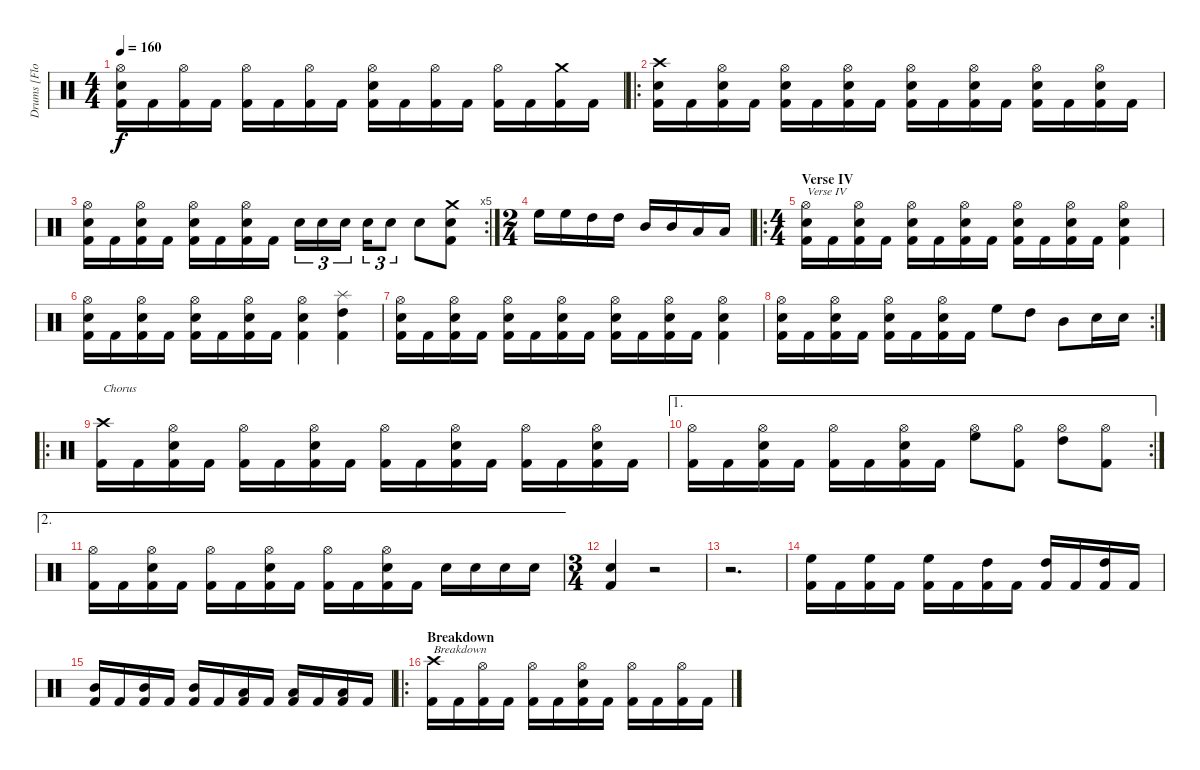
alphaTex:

\track ("Drums [Flo Mounier]" "Drums [Flo") {instrument percussion}
\staff {score}
\articulation defaults
\ts (4 4)
\tempo 160
\clef neutral
\ks c
("Hi-Hat (open)" "Electric Snare (hit)" "Kick (hit) 2").16{dy f} "Kick (hit) 2".16 ("Hi-Hat (open)" "Kick (hit) 2").16 "Kick (hit) 2".16 ("Hi-Hat (open)" "Kick (hit) 2").16 "Kick (hit) 2".16 ("Hi-Hat (open)" "Kick (hit) 2").16 "Kick (hit) 2".16 ("Hi-Hat (open)" "Electric Snare (hit)" "Kick (hit) 2").16 "Kick (hit) 2".16 ("Hi-Hat (open)" "Kick (hit) 2").16 "Kick (hit) 2".16 ("Hi-Hat (open)" "Kick (hit) 2").16 "Kick (hit) 2".16 ("Crash medium (hit)" "Kick (hit) 2").16 "Kick (hit) 2".16 |
\ro
("Crash high (hit)" "Electric Snare (hit)" "Kick (hit) 2").16 "Kick (hit) 2".16 ("Hi-Hat (open)" "Electric Snare (hit)" "Kick (hit) 2").16 "Kick (hit) 2".16 ("Hi-Hat (open)" "Electric Snare (hit)" "Kick (hit) 2").16 "Kick (hit) 2".16 ("Hi-Hat (open)" "Electric Snare (hit)" "Kick (hit) 2").16 "Kick (hit) 2".16 ("Hi-Hat (open)" "Electric Snare (hit)" "Kick (hit) 2").16 "Kick (hit) 2".16 ("Hi-Hat (open)" "Electric Snare (hit)" "Kick (hit) 2").16 "Kick (hit) 2".16 ("Hi-Hat (open)" "Electric Snare (hit)" "Kick (hit) 2").16 "Kick (hit) 2".16 ("Hi-Hat (open)" "Electric Snare (hit)" "Kick (hit) 2").16 "Kick (hit) 2".16 |
\rc 5
("Hi-Hat (open)" "Electric Snare (hit)" "Kick (hit) 2").16 "Kick (hit) 2".16 ("Hi-Hat (open)" "Electric Snare (hit)" "Kick (hit) 2").16 "Kick (hit) 2".16 ("Hi-Hat (open)" "Electric Snare (hit)" "Kick (hit) 2").16 "Kick (hit) 2".16 ("Hi-Hat (open)" "Electric Snare (hit)" "Kick (hit) 2").16 "Kick (hit) 2".16 "Electric Snare (hit)".16{tu (3 2)} "Electric Snare (hit)".16{tu (3 2)} "Electric Snare (hit)".16{tu (3 2)} "Electric Snare (hit)".16{tu (3 2)} "Electric Snare (hit)".8{tu (3 2)} "Electric Snare (hit)".8 ("Crash medium (hit)" "Electric Snare (hit)" "Kick (hit) 2").8 |
\ts (2 4)
"High Floor Tom (hit)".16 "High Floor Tom (hit)".16 "High Tom (hit)".16 "High Tom (hit)".16 "Mid Tom (hit)".16 "Mid Tom (hit)".16 "Low Tom (hit)".16 "Low Tom (hit)".16 |
\ro
\ts (4 4)
\section ("" "Verse IV")
("Hi-Hat (open)" "Electric Snare (hit)" "Kick (hit) 2").16{txt "Verse IV"} "Kick (hit) 2".16 ("Hi-Hat (open)" "Electric Snare (hit)" "Kick (hit) 2").16 "Kick (hit) 2".16 ("Hi-Hat (open)" "Electric Snare (hit)" "Kick (hit) 2").16 "Kick (hit) 2".16 ("Hi-Hat (open)" "Electric Snare (hit)" "Kick (hit) 2").16 "Kick (hit) 2".16 ("Hi-Hat (open)" "Electric Snare (hit)" "Kick (hit) 2").16 "Kick (hit) 2".16 ("Hi-Hat (open)" "Electric Snare (hit)" "Kick (hit) 2").16 "Kick (hit) 2".16 ("Hi-Hat (open)" "Electric Snare (hit)" "Kick (hit) 2").4 |
("Hi-Hat (open)" "Electric Snare (hit)" "Kick (hit) 2").16 "Kick (hit) 2".16 ("Hi-Hat (open)" "Electric Snare (hit)" "Kick (hit) 2").16 "Kick (hit) 2".16 ("Hi-Hat (open)" "Electric Snare (hit)" "Kick (hit) 2").16 "Kick (hit) 2".16 ("Hi-Hat (open)" "Electric Snare (hit)" "Kick (hit) 2").16 "Kick (hit) 2".16 ("Hi-Hat (open)" "Electric Snare (hit)" "Kick (hit) 2").4 ("Splash (hit)" "High Tom (hit)" "Kick (hit) 2").4 |
("Hi-Hat (open)" "Electric Snare (hit)" "Kick (hit) 2").16 "Kick (hit) 2".16 ("Hi-Hat (open)" "Electric Snare (hit)" "Kick (hit) 2").16 "Kick (hit) 2".16 ("Hi-Hat (open)" "Electric Snare (hit)" "Kick (hit) 2").16 "Kick (hit) 2".16 ("Hi-Hat (open)" "Electric Snare (hit)" "Kick (hit) 2").16 "Kick (hit) 2".16 ("Hi-Hat (open)" "Electric Snare (hit)" "Kick (hit) 2").16 "Kick (hit) 2".16 ("Hi-Hat (open)" "Electric Snare (hit)" "Kick (hit) 2").16 "Kick (hit) 2".16 ("Hi-Hat (open)" "Electric Snare (hit)" "Kick (hit) 2").4 |
\rc 2
("Hi-Hat (open)" "Electric Snare (hit)" "Kick (hit) 2").16 "Kick (hit) 2".16 ("Hi-Hat (open)" "Electric Snare (hit)" "Kick (hit) 2").16 "Kick (hit) 2".16 ("Hi-Hat (open)" "Electric Snare (hit)" "Kick (hit) 2").16 "Kick (hit) 2".16 ("Hi-Hat (open)" "Electric Snare (hit)" "Kick (hit) 2").16 "Kick (hit) 2".16 "High Floor Tom (hit)".8 "High Tom (hit)".8 "Mid Tom (hit)".8 "Electric Snare (hit)".16 "Electric Snare (hit)".16 |
\ro
("Crash high (hit)" "Kick (hit) 2").16{txt "Chorus"} "Kick (hit) 2".16 ("Hi-Hat (open)" "Electric Snare (hit)" "Kick (hit) 2").16 "Kick (hit) 2".16 ("Hi-Hat (open)" "Kick (hit) 2").16 "Kick (hit) 2".16 ("Hi-Hat (open)" "Electric Snare (hit)" "Kick (hit) 2").16 "Kick (hit) 2".16 ("Hi-Hat (open)" "Kick (hit) 2").16 "Kick (hit) 2".16 ("Hi-Hat (open)" "Electric Snare (hit)" "Kick (hit) 2").16 "Kick (hit) 2".16 ("Hi-Hat (open)" "Kick (hit) 2").16 "Kick (hit) 2".16 ("Hi-Hat (open)" "Electric Snare (hit)" "Kick (hit) 2").16 "Kick (hit) 2".16 |
\ae 1
\rc 2
("Hi-Hat (open)" "Kick (hit) 2").16 "Kick (hit) 2".16 ("Hi-Hat (open)" "Electric Snare (hit)" "Kick (hit) 2").16 "Kick (hit) 2".16 ("Hi-Hat (open)" "Kick (hit) 2").16 "Kick (hit) 2".16 ("Hi-Hat (open)" "Electric Snare (hit)" "Kick (hit) 2").16 "Kick (hit) 2".16 ("Hi-Hat (open)" "High Floor Tom (hit)").8 ("Hi-Hat (open)" "Kick (hit) 2").8 ("Hi-Hat (open)" "High Tom (hit)").8 ("Hi-Hat (open)" "Kick (hit) 2").8 |
\ae 2
("Hi-Hat (open)" "Kick (hit) 2").16 "Kick (hit) 2".16 ("Hi-Hat (open)" "Electric Snare (hit)" "Kick (hit) 2").16 "Kick (hit) 2".16 ("Hi-Hat (open)" "Kick (hit) 2").16 "Kick (hit) 2".16 ("Hi-Hat (open)" "Electric Snare (hit)" "Kick (hit) 2").16 "Kick (hit) 2".16 ("Hi-Hat (open)" "Kick (hit) 2").16 "Kick (hit) 2".16 ("Hi-Hat (open)" "Electric Snare (hit)" "Kick (hit) 2").16 "Kick (hit) 2".16 "Electric Snare (hit)".16 "Electric Snare (hit)".16 "Electric Snare (hit)".16 "Electric Snare (hit)".16 |
\ts (3 4)
("Electric Snare (hit)" "Kick (hit) 2").4 r.2 |
r.2{d} |
("High Floor Tom (hit)" "Kick (hit) 2").16 "Kick (hit) 2".16 ("High Floor Tom (hit)" "Kick (hit) 2").16 "Kick (hit) 2".16 ("High Floor Tom (hit)" "Kick (hit) 2").16 "Kick (hit) 2".16 ("High Tom (hit)" "Kick (hit) 2").16 "Kick (hit) 2".16 ("High Tom (hit)" "Kick (hit) 2").16 "Kick (hit) 2".16 ("High Tom (hit)" "Kick (hit) 2").16 "Kick (hit) 2".16 |
("Mid Tom (hit)" "Kick (hit) 2").16 "Kick (hit) 2".16 ("Mid Tom (hit)" "Kick (hit) 2").16 "Kick (hit) 2".16 ("Mid Tom (hit)" "Kick (hit) 2").16 "Kick (hit) 2".16 ("Low Tom (hit)" "Kick (hit) 2").16 "Kick (hit) 2".16 ("Low Tom (hit)" "Kick (hit) 2").16 "Kick (hit) 2".16 ("Low Tom (hit)" "Kick (hit) 2").16 "Kick (hit) 2".16 |
\ro
\section ("" "Breakdown")
("Crash high (hit)" "Kick (hit) 2").16{txt "Breakdown"} "Kick (hit) 2".16 ("Hi-Hat (open)" "Kick (hit) 2").16 "Kick (hit) 2".16 ("Hi-Hat (open)" "Kick (hit) 2").16 "Kick (hit) 2".16 ("Hi-Hat (open)" "Electric Snare (hit)" "Kick (hit) 2").16 "Kick (hit) 2".16 ("Hi-Hat (open)" "Kick (hit) 2").16 "Kick (hit) 2".16 ("Hi-Hat (open)" "Kick (hit) 2").16 "Kick (hit) 2".16
